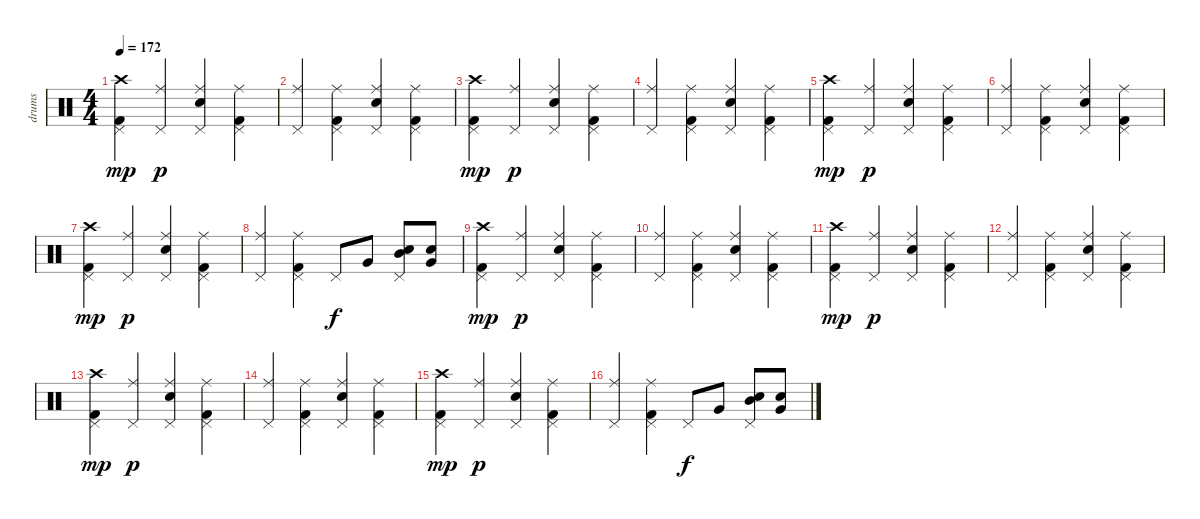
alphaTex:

\track ("drums" "drums") {instrument percussion}
\staff {score}
\articulation defaults
\ts (4 4)
\tempo 172
\clef neutral
\ks c
("Crash high (hit)" "Kick (hit) 2" "Pedal Hi-Hat (hit)").4{dy mp} ("Ride (middle)" "Pedal Hi-Hat (hit)").4{dy p} ("Ride (middle)" "Electric Snare (hit)" "Pedal Hi-Hat (hit)").4 ("Ride (middle)" "Kick (hit) 2" "Pedal Hi-Hat (hit)").4 |
("Ride (middle)" "Pedal Hi-Hat (hit)").4 ("Ride (middle)" "Kick (hit) 2" "Pedal Hi-Hat (hit)").4 ("Ride (middle)" "Electric Snare (hit)" "Pedal Hi-Hat (hit)").4 ("Ride (middle)" "Kick (hit) 2" "Pedal Hi-Hat (hit)").4 |
("Crash high (hit)" "Kick (hit) 2" "Pedal Hi-Hat (hit)").4{dy mp} ("Ride (middle)" "Pedal Hi-Hat (hit)").4{dy p} ("Ride (middle)" "Electric Snare (hit)" "Pedal Hi-Hat (hit)").4 ("Ride (middle)" "Kick (hit) 2" "Pedal Hi-Hat (hit)").4 |
("Ride (middle)" "Pedal Hi-Hat (hit)").4 ("Ride (middle)" "Kick (hit) 2" "Pedal Hi-Hat (hit)").4 ("Ride (middle)" "Electric Snare (hit)" "Pedal Hi-Hat (hit)").4 ("Ride (middle)" "Kick (hit) 2" "Pedal Hi-Hat (hit)").4 |
("Crash high (hit)" "Kick (hit) 2" "Pedal Hi-Hat (hit)").4{dy mp} ("Ride (middle)" "Pedal Hi-Hat (hit)").4{dy p} ("Ride (middle)" "Electric Snare (hit)" "Pedal Hi-Hat (hit)").4 ("Ride (middle)" "Kick (hit) 2" "Pedal Hi-Hat (hit)").4 |
("Ride (middle)" "Pedal Hi-Hat (hit)").4 ("Ride (middle)" "Kick (hit) 2" "Pedal Hi-Hat (hit)").4 ("Ride (middle)" "Electric Snare (hit)" "Pedal Hi-Hat (hit)").4 ("Ride (middle)" "Kick (hit) 2" "Pedal Hi-Hat (hit)").4 |
("Crash high (hit)" "Kick (hit) 2" "Pedal Hi-Hat (hit)").4{dy mp} ("Ride (middle)" "Pedal Hi-Hat (hit)").4{dy p} ("Ride (middle)" "Electric Snare (hit)" "Pedal Hi-Hat (hit)").4 ("Ride (middle)" "Kick (hit) 2" "Pedal Hi-Hat (hit)").4 |
("Ride (middle)" "Pedal Hi-Hat (hit)").4 ("Ride (middle)" "Kick (hit) 2" "Pedal Hi-Hat (hit)").4 "Pedal Hi-Hat (hit)".8{dy f} "Very Low Tom (hit)".8 ("Electric Snare (hit)" "Mid Tom (hit)" "Pedal Hi-Hat (hit)").8 ("Very Low Tom (hit)" "Electric Snare (hit)").8 |
("Crash high (hit)" "Kick (hit) 2" "Pedal Hi-Hat (hit)").4{dy mp} ("Ride (middle)" "Pedal Hi-Hat (hit)").4{dy p} ("Ride (middle)" "Electric Snare (hit)" "Pedal Hi-Hat (hit)").4 ("Ride (middle)" "Kick (hit) 2" "Pedal Hi-Hat (hit)").4 |
("Ride (middle)" "Pedal Hi-Hat (hit)").4 ("Ride (middle)" "Kick (hit) 2" "Pedal Hi-Hat (hit)").4 ("Ride (middle)" "Electric Snare (hit)" "Pedal Hi-Hat (hit)").4 ("Ride (middle)" "Kick (hit) 2" "Pedal Hi-Hat (hit)").4 |
("Crash high (hit)" "Kick (hit) 2" "Pedal Hi-Hat (hit)").4{dy mp} ("Ride (middle)" "Pedal Hi-Hat (hit)").4{dy p} ("Ride (middle)" "Electric Snare (hit)" "Pedal Hi-Hat (hit)").4 ("Ride (middle)" "Kick (hit) 2" "Pedal Hi-Hat (hit)").4 |
("Ride (middle)" "Pedal Hi-Hat (hit)").4 ("Ride (middle)" "Kick (hit) 2" "Pedal Hi-Hat (hit)").4 ("Ride (middle)" "Electric Snare (hit)" "Pedal Hi-Hat (hit)").4 ("Ride (middle)" "Kick (hit) 2" "Pedal Hi-Hat (hit)").4 |
("Crash high (hit)" "Kick (hit) 2" "Pedal Hi-Hat (hit)").4{dy mp} ("Ride (middle)" "Pedal Hi-Hat (hit)").4{dy p} ("Ride (middle)" "Electric Snare (hit)" "Pedal Hi-Hat (hit)").4 ("Ride (middle)" "Kick (hit) 2" "Pedal Hi-Hat (hit)").4 |
("Ride (middle)" "Pedal Hi-Hat (hit)").4 ("Ride (middle)" "Kick (hit) 2" "Pedal Hi-Hat (hit)").4 ("Ride (middle)" "Electric Snare (hit)" "Pedal Hi-Hat (hit)").4 ("Ride (middle)" "Kick (hit) 2" "Pedal Hi-Hat (hit)").4 |
("Crash high (hit)" "Kick (hit) 2" "Pedal Hi-Hat (hit)").4{dy mp} ("Ride (middle)" "Pedal Hi-Hat (hit)").4{dy p} ("Ride (middle)" "Electric Snare (hit)" "Pedal Hi-Hat (hit)").4 ("Ride (middle)" "Kick (hit) 2" "Pedal Hi-Hat (hit)").4 |
("Ride (middle)" "Pedal Hi-Hat (hit)").4 ("Ride (middle)" "Kick (hit) 2" "Pedal Hi-Hat (hit)").4 "Pedal Hi-Hat (hit)".8{dy f} "Very Low Tom (hit)".8 ("Electric Snare (hit)" "Mid Tom (hit)" "Pedal Hi-Hat (hit)").8 ("Very Low Tom (hit)" "Electric Snare (hit)").8
